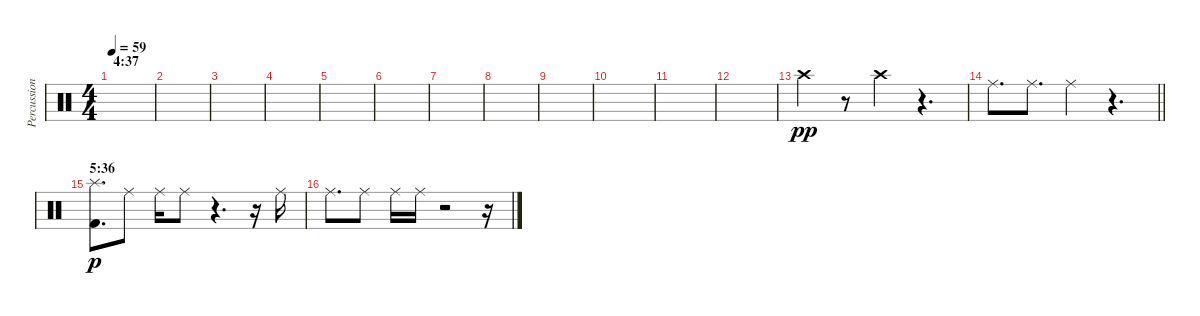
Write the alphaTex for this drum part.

\track ("Percussions" "Percussion") {instrument percussion}
\staff {score}
\articulation defaults
\ts (4 4)
\section ("" "4:37")
\tempo 59
\clef neutral
\ks c
|
|
|
|
|
|
|
|
|
|
|
|
"Crash high (hit)".4{dy pp} r.8 "Crash high (hit)".4 r.4{d} |
\barLineRight lightlight "Ride (middle)".8{d} "Ride (middle)".8{d} "Ride (middle)".4
r.4{d} |
\section ("" "5:36")
("Splash (hit)" "Kick (hit) 2").8{d dy p} "Ride (middle)".8 "Ride (middle)".16 "Ride (middle)".8 r.4{d} r.16 "Ride (middle)".16 |
"Ride (middle)".8{d} "Ride (middle)".8 "Ride (middle)".16 "Ride (middle)".16 r.2 r.16
